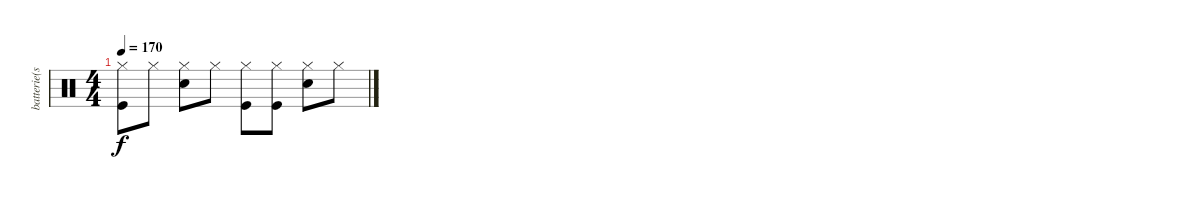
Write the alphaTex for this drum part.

\track ("batterie(steve)" "batterie(s") {instrument percussion}
\staff {score}
\articulation defaults
\ts (4 4)
\tempo 170
\clef neutral
\ks c
("Hi-Hat (closed)" "Kick (hit)").8{dy f volume 0} "Hi-Hat (closed)".8 ("Hi-Hat (closed)" "Snare (hit) 2").8 "Hi-Hat (closed)".8 ("Hi-Hat (closed)" "Kick (hit)").8 ("Hi-Hat (closed)" "Kick (hit)").8 ("Hi-Hat (closed)" "Snare (hit) 2").8 "Hi-Hat (closed)".8
